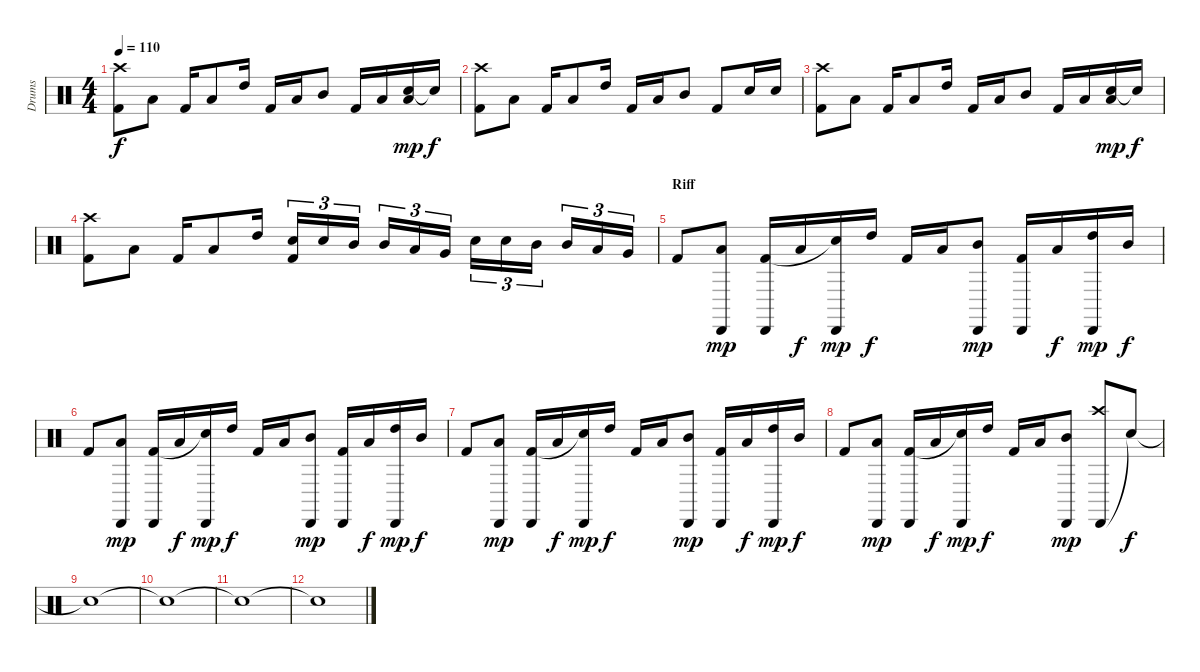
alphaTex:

\track ("Drums" "Drums") {instrument percussion}
\staff {score}
\articulation defaults
\ts (4 4)
\tempo 110
\clef neutral
\ks c
("Crash high (hit)" "Kick (hit) 2").8{dy f} "Low Tom (hit)".8 "Kick (hit) 2".16 "Low Tom (hit)".8 "High Tom (hit)".16 "Kick (hit) 2".16 "Low Tom (hit)".16 "Mid Tom (hit)".8 "Kick (hit) 2".16 "Low Tom (hit)".16 ("Snare (hit) 2" "Low Tom (hit)").16{dy mp} "Snare (hit)"{t}.16{dy f} |
("Crash high (hit)" "Kick (hit) 2").8 "Low Tom (hit)".8 "Kick (hit) 2".16 "Low Tom (hit)".8 "High Tom (hit)".16 "Kick (hit) 2".16 "Low Tom (hit)".16 "Mid Tom (hit)".8 "Kick (hit) 2".8 "Snare (hit) 2".16 "Snare (hit) 2".16 |
("Crash high (hit)" "Kick (hit) 2").8 "Low Tom (hit)".8 "Kick (hit) 2".16 "Low Tom (hit)".8 "High Tom (hit)".16 "Kick (hit) 2".16 "Low Tom (hit)".16 "Mid Tom (hit)".8 "Kick (hit) 2".16 "Low Tom (hit)".16 ("Snare (hit) 2" "Low Tom (hit)").16{dy mp} "Snare (hit)"{t}.16{dy f} |
("Crash high (hit)" "Kick (hit) 2").8 "Low Tom (hit)".8 "Kick (hit) 2".16 "Low Tom (hit)".8 "High Tom (hit)".16 ("Snare (hit) 2" "Kick (hit) 2").16{tu (3 2)} "Snare (hit) 2".16{tu (3 2)} "Mid Tom (hit)".16{tu (3 2) beam splitsecondary} "Mid Tom (hit)".16{tu (3 2)} "Low Tom (hit)".16{tu (3 2)} "Very Low Tom (hit)".16{tu (3 2)} "Snare (hit) 2".16{tu (3 2)} "Snare (hit) 2".16{tu (3 2)} "Mid Tom (hit)".16{tu (3 2) beam splitsecondary} "Mid Tom (hit)".16{tu (3 2)} "Low Tom (hit)".16{tu (3 2)} "Very Low Tom (hit)".16{tu (3 2)} |
\section ("" "Riff")
"Kick (hit) 2".8 ("Cabasa (hit)" "Low Tom (hit)").8{dy mp} ("Cabasa (hit)" "Kick (hit) 2").16 "Low Tom (hit)".16{dy f} ("Cabasa (hit)" "Snare (hit)"{t}).16{dy mp} "High Tom (hit)".16{dy f} "Kick (hit) 2".16 "Low Tom (hit)".16 ("Cabasa (hit)" "Mid Tom (hit)").8{dy mp} ("Cabasa (hit)" "Kick (hit) 2").16 "Low Tom (hit)".16{dy f} ("Cabasa (hit)" "High Tom (hit)").16{dy mp} "Mid Tom (hit)".16{dy f} |
"Kick (hit) 2".8 ("Cabasa (hit)" "Low Tom (hit)").8{dy mp} ("Cabasa (hit)" "Kick (hit) 2").16 "Low Tom (hit)".16{dy f} ("Cabasa (hit)" "Snare (hit)"{t}).16{dy mp} "High Tom (hit)".16{dy f} "Kick (hit) 2".16 "Low Tom (hit)".16 ("Cabasa (hit)" "Mid Tom (hit)").8{dy mp} ("Cabasa (hit)" "Kick (hit) 2").16 "Low Tom (hit)".16{dy f} ("Cabasa (hit)" "High Tom (hit)").16{dy mp} "Mid Tom (hit)".16{dy f} |
"Kick (hit) 2".8 ("Cabasa (hit)" "Low Tom (hit)").8{dy mp} ("Cabasa (hit)" "Kick (hit) 2").16 "Low Tom (hit)".16{dy f} ("Cabasa (hit)" "Snare (hit)"{t}).16{dy mp} "High Tom (hit)".16{dy f} "Kick (hit) 2".16 "Low Tom (hit)".16 ("Cabasa (hit)" "Mid Tom (hit)").8{dy mp} ("Cabasa (hit)" "Kick (hit) 2").16 "Low Tom (hit)".16{dy f} ("Cabasa (hit)" "High Tom (hit)").16{dy mp} "Mid Tom (hit)".16{dy f} |
"Kick (hit) 2".8 ("Cabasa (hit)" "Low Tom (hit)").8{dy mp} ("Cabasa (hit)" "Kick (hit) 2").16 "Low Tom (hit)".16{dy f} ("Cabasa (hit)" "Snare (hit)"{t}).16{dy mp} "High Tom (hit)".16{dy f} "Kick (hit) 2".16 "Low Tom (hit)".16 ("Cabasa (hit)" "Mid Tom (hit)").8{dy mp} ("Cabasa (hit)" "Crash high (hit)").8 "Snare (hit)"{t}.8{dy f} |
"Snare (hit)"{t}.1 |
"Snare (hit)"{t}.1 |
"Snare (hit)"{t}.1 |
"Snare (hit)"{t}.1
